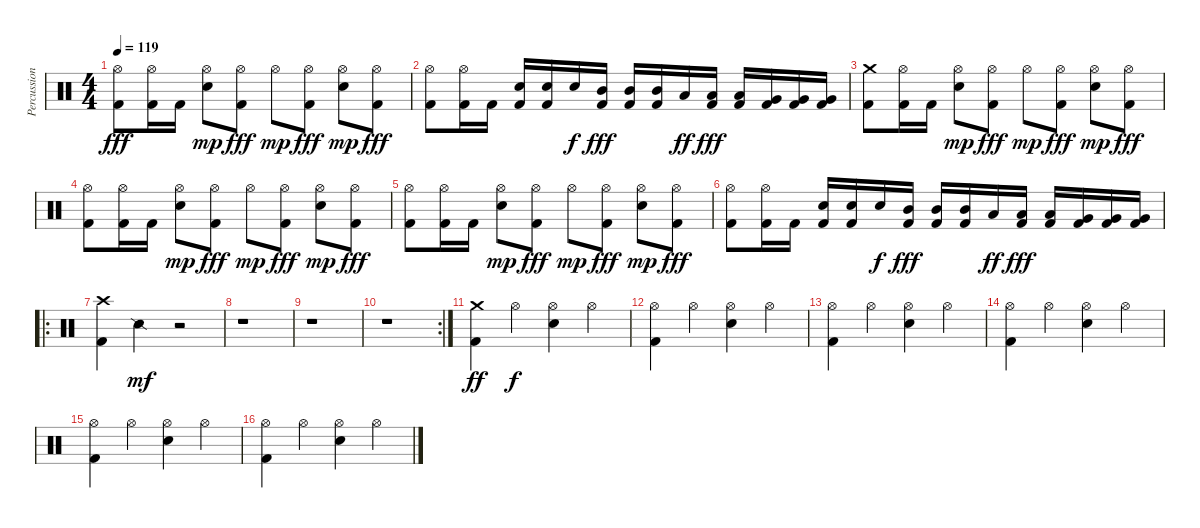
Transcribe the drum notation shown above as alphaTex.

\track ("Percussion" "Percussion") {instrument percussion}
\staff {score}
\articulation defaults
\ts (4 4)
\tempo 119
\clef neutral
\ks c
("Hi-Hat (open)" "Kick (hit) 2").8{dy fff} ("Hi-Hat (open)" "Kick (hit) 2").16 "Kick (hit) 2".16 ("Hi-Hat (open)" "Electric Snare (hit)").8{dy mp} ("Hi-Hat (open)" "Kick (hit) 2").8{dy fff} "Hi-Hat (open)".8{dy mp} ("Hi-Hat (open)" "Kick (hit) 2").8{dy fff} ("Hi-Hat (open)" "Electric Snare (hit)").8{dy mp} ("Hi-Hat (open)" "Kick (hit) 2").8{dy fff} |
("Hi-Hat (open)" "Kick (hit) 2").8 ("Hi-Hat (open)" "Kick (hit) 2").16 "Kick (hit) 2".16 ("Electric Snare (hit)" "Kick (hit) 2").16 ("Electric Snare (hit)" "Kick (hit) 2").16 "Electric Snare (hit)".16{dy f} ("Mid Tom (hit)" "Kick (hit) 2").16{dy fff} ("Mid Tom (hit)" "Kick (hit) 2").16 ("Mid Tom (hit)" "Kick (hit) 2").16 "Low Tom (hit)".16{dy ff} ("Low Tom (hit)" "Kick (hit) 2").16{dy fff} ("Low Tom (hit)" "Kick (hit) 2").16 ("Very Low Tom (hit)" "Kick (hit) 2").16 ("Very Low Tom (hit)" "Kick (hit) 2").16 ("Very Low Tom (hit)" "Kick (hit) 2").16 |
("Crash medium (hit)" "Kick (hit) 2").8 ("Hi-Hat (open)" "Kick (hit) 2").16 "Kick (hit) 2".16 ("Hi-Hat (open)" "Electric Snare (hit)").8{dy mp} ("Hi-Hat (open)" "Kick (hit) 2").8{dy fff} "Hi-Hat (open)".8{dy mp} ("Hi-Hat (open)" "Kick (hit) 2").8{dy fff} ("Hi-Hat (open)" "Electric Snare (hit)").8{dy mp} ("Hi-Hat (open)" "Kick (hit) 2").8{dy fff} |
("Hi-Hat (open)" "Kick (hit) 2").8 ("Hi-Hat (open)" "Kick (hit) 2").16 "Kick (hit) 2".16 ("Hi-Hat (open)" "Electric Snare (hit)").8{dy mp} ("Hi-Hat (open)" "Kick (hit) 2").8{dy fff} "Hi-Hat (open)".8{dy mp} ("Hi-Hat (open)" "Kick (hit) 2").8{dy fff} ("Hi-Hat (open)" "Electric Snare (hit)").8{dy mp} ("Hi-Hat (open)" "Kick (hit) 2").8{dy fff} |
("Hi-Hat (open)" "Kick (hit) 2").8 ("Hi-Hat (open)" "Kick (hit) 2").16 "Kick (hit) 2".16 ("Hi-Hat (open)" "Electric Snare (hit)").8{dy mp} ("Hi-Hat (open)" "Kick (hit) 2").8{dy fff} "Hi-Hat (open)".8{dy mp} ("Hi-Hat (open)" "Kick (hit) 2").8{dy fff} ("Hi-Hat (open)" "Electric Snare (hit)").8{dy mp} ("Hi-Hat (open)" "Kick (hit) 2").8{dy fff} |
("Hi-Hat (open)" "Kick (hit) 2").8 ("Hi-Hat (open)" "Kick (hit) 2").16 "Kick (hit) 2".16 ("Electric Snare (hit)" "Kick (hit) 2").16 ("Electric Snare (hit)" "Kick (hit) 2").16 "Electric Snare (hit)".16{dy f} ("Mid Tom (hit)" "Kick (hit) 2").16{dy fff} ("Mid Tom (hit)" "Kick (hit) 2").16 ("Mid Tom (hit)" "Kick (hit) 2").16 "Low Tom (hit)".16{dy ff} ("Low Tom (hit)" "Kick (hit) 2").16{dy fff} ("Low Tom (hit)" "Kick (hit) 2").16 ("Very Low Tom (hit)" "Kick (hit) 2").16 ("Very Low Tom (hit)" "Kick (hit) 2").16 ("Very Low Tom (hit)" "Kick (hit) 2").16 |
\ro
("Crash high (hit)" "Kick (hit) 2").4 "Snare (side stick) 2".4{dy mf} r.2 |
r.1 |
r.1 |
\rc 2
r.1 |
("Crash medium (hit)" "Kick (hit) 2").4{dy ff} "Hi-Hat (open)".4{dy f} ("Hi-Hat (open)" "Electric Snare (hit)").4 "Hi-Hat (open)".4 |
("Hi-Hat (open)" "Kick (hit) 2").4 "Hi-Hat (open)".4 ("Hi-Hat (open)" "Electric Snare (hit)").4 "Hi-Hat (open)".4 |
("Hi-Hat (open)" "Kick (hit) 2").4 "Hi-Hat (open)".4 ("Hi-Hat (open)" "Electric Snare (hit)").4 "Hi-Hat (open)".4 |
("Hi-Hat (open)" "Kick (hit) 2").4 "Hi-Hat (open)".4 ("Hi-Hat (open)" "Electric Snare (hit)").4 "Hi-Hat (open)".4 |
("Hi-Hat (open)" "Kick (hit) 2").4 "Hi-Hat (open)".4 ("Hi-Hat (open)" "Electric Snare (hit)").4 "Hi-Hat (open)".4 |
("Hi-Hat (open)" "Kick (hit) 2").4 "Hi-Hat (open)".4 ("Hi-Hat (open)" "Electric Snare (hit)").4 "Hi-Hat (open)".4
